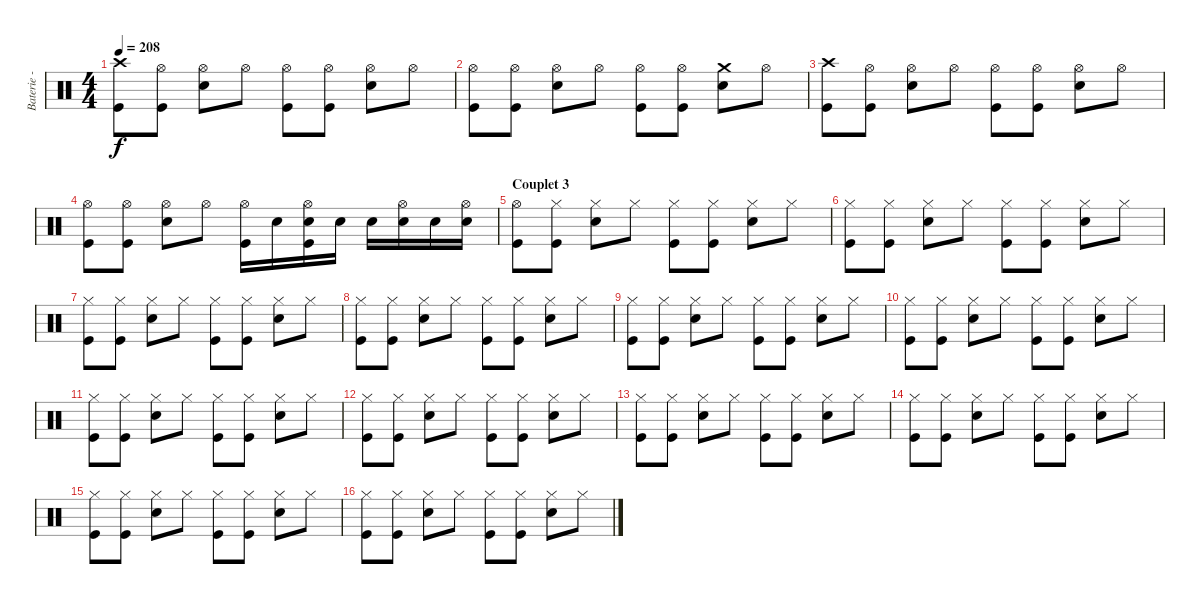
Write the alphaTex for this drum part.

\track ("Baterie - Guillaume" "Baterie - ") {instrument percussion}
\staff {score}
\articulation defaults
\ts (4 4)
\tempo 208
\clef neutral
\ks c
("Crash high (hit)" "Kick (hit)").8{dy f} ("Hi-Hat (open)" "Kick (hit)").8 ("Hi-Hat (open)" "Electric Snare (hit)").8 "Hi-Hat (open)".8 ("Hi-Hat (open)" "Kick (hit)").8 ("Hi-Hat (open)" "Kick (hit)").8 ("Hi-Hat (open)" "Electric Snare (hit)").8 "Hi-Hat (open)".8 |
("Hi-Hat (open)" "Kick (hit)").8 ("Hi-Hat (open)" "Kick (hit)").8 ("Hi-Hat (open)" "Electric Snare (hit)").8 "Hi-Hat (open)".8 ("Hi-Hat (open)" "Kick (hit)").8 ("Hi-Hat (open)" "Kick (hit)").8 ("Crash medium (hit)" "Electric Snare (hit)").8 "Hi-Hat (open)".8 |
("Crash high (hit)" "Kick (hit)").8 ("Hi-Hat (open)" "Kick (hit)").8 ("Hi-Hat (open)" "Electric Snare (hit)").8 "Hi-Hat (open)".8 ("Hi-Hat (open)" "Kick (hit)").8 ("Hi-Hat (open)" "Kick (hit)").8 ("Hi-Hat (open)" "Electric Snare (hit)").8 "Hi-Hat (open)".8 |
("Hi-Hat (open)" "Kick (hit)").8 ("Hi-Hat (open)" "Kick (hit)").8 ("Hi-Hat (open)" "Electric Snare (hit)").8 "Hi-Hat (open)".8 ("Hi-Hat (open)" "Kick (hit)").16 "Electric Snare (hit)".16 ("Hi-Hat (open)" "Electric Snare (hit)" "Kick (hit)").16 "Electric Snare (hit)".16 "Electric Snare (hit)".16 ("Hi-Hat (open)" "Electric Snare (hit)").16 "Electric Snare (hit)".16 ("Hi-Hat (open)" "Electric Snare (hit)").16 |
\section ("" "Couplet 3")
("Hi-Hat (open)" "Kick (hit)").8 ("Hi-Hat (closed)" "Kick (hit)").8 ("Hi-Hat (closed)" "Electric Snare (hit)").8 "Hi-Hat (closed)".8 ("Hi-Hat (closed)" "Kick (hit)").8 ("Hi-Hat (closed)" "Kick (hit)").8 ("Hi-Hat (closed)" "Electric Snare (hit)").8 "Hi-Hat (closed)".8 |
("Hi-Hat (closed)" "Kick (hit)").8 ("Hi-Hat (closed)" "Kick (hit)").8 ("Hi-Hat (closed)" "Electric Snare (hit)").8 "Hi-Hat (closed)".8 ("Hi-Hat (closed)" "Kick (hit)").8 ("Hi-Hat (closed)" "Kick (hit)").8 ("Hi-Hat (closed)" "Electric Snare (hit)").8 "Hi-Hat (closed)".8 |
("Hi-Hat (closed)" "Kick (hit)").8 ("Hi-Hat (closed)" "Kick (hit)").8 ("Hi-Hat (closed)" "Electric Snare (hit)").8 "Hi-Hat (closed)".8 ("Hi-Hat (closed)" "Kick (hit)").8 ("Hi-Hat (closed)" "Kick (hit)").8 ("Hi-Hat (closed)" "Electric Snare (hit)").8 "Hi-Hat (closed)".8 |
("Hi-Hat (closed)" "Kick (hit)").8 ("Hi-Hat (closed)" "Kick (hit)").8 ("Hi-Hat (closed)" "Electric Snare (hit)").8 "Hi-Hat (closed)".8 ("Hi-Hat (closed)" "Kick (hit)").8 ("Hi-Hat (closed)" "Kick (hit)").8 ("Hi-Hat (closed)" "Electric Snare (hit)").8 "Hi-Hat (closed)".8 |
("Hi-Hat (closed)" "Kick (hit)").8 ("Hi-Hat (closed)" "Kick (hit)").8 ("Hi-Hat (closed)" "Electric Snare (hit)").8 "Hi-Hat (closed)".8 ("Hi-Hat (closed)" "Kick (hit)").8 ("Hi-Hat (closed)" "Kick (hit)").8 ("Hi-Hat (closed)" "Electric Snare (hit)").8 "Hi-Hat (closed)".8 |
("Hi-Hat (closed)" "Kick (hit)").8 ("Hi-Hat (closed)" "Kick (hit)").8 ("Hi-Hat (closed)" "Electric Snare (hit)").8 "Hi-Hat (closed)".8 ("Hi-Hat (closed)" "Kick (hit)").8 ("Hi-Hat (closed)" "Kick (hit)").8 ("Hi-Hat (closed)" "Electric Snare (hit)").8 "Hi-Hat (closed)".8 |
("Hi-Hat (closed)" "Kick (hit)").8 ("Hi-Hat (closed)" "Kick (hit)").8 ("Hi-Hat (closed)" "Electric Snare (hit)").8 "Hi-Hat (closed)".8 ("Hi-Hat (closed)" "Kick (hit)").8 ("Hi-Hat (closed)" "Kick (hit)").8 ("Hi-Hat (closed)" "Electric Snare (hit)").8 "Hi-Hat (closed)".8 |
("Hi-Hat (closed)" "Kick (hit)").8 ("Hi-Hat (closed)" "Kick (hit)").8 ("Hi-Hat (closed)" "Electric Snare (hit)").8 "Hi-Hat (closed)".8 ("Hi-Hat (closed)" "Kick (hit)").8 ("Hi-Hat (closed)" "Kick (hit)").8 ("Hi-Hat (closed)" "Electric Snare (hit)").8 "Hi-Hat (closed)".8 |
("Hi-Hat (closed)" "Kick (hit)").8 ("Hi-Hat (closed)" "Kick (hit)").8 ("Hi-Hat (closed)" "Electric Snare (hit)").8 "Hi-Hat (closed)".8 ("Hi-Hat (closed)" "Kick (hit)").8 ("Hi-Hat (closed)" "Kick (hit)").8 ("Hi-Hat (closed)" "Electric Snare (hit)").8 "Hi-Hat (closed)".8 |
("Hi-Hat (closed)" "Kick (hit)").8 ("Hi-Hat (closed)" "Kick (hit)").8 ("Hi-Hat (closed)" "Electric Snare (hit)").8 "Hi-Hat (closed)".8 ("Hi-Hat (closed)" "Kick (hit)").8 ("Hi-Hat (closed)" "Kick (hit)").8 ("Hi-Hat (closed)" "Electric Snare (hit)").8 "Hi-Hat (closed)".8 |
("Hi-Hat (closed)" "Kick (hit)").8 ("Hi-Hat (closed)" "Kick (hit)").8 ("Hi-Hat (closed)" "Electric Snare (hit)").8 "Hi-Hat (closed)".8 ("Hi-Hat (closed)" "Kick (hit)").8 ("Hi-Hat (closed)" "Kick (hit)").8 ("Hi-Hat (closed)" "Electric Snare (hit)").8 "Hi-Hat (closed)".8 |
("Hi-Hat (closed)" "Kick (hit)").8 ("Hi-Hat (closed)" "Kick (hit)").8 ("Hi-Hat (closed)" "Electric Snare (hit)").8 "Hi-Hat (closed)".8 ("Hi-Hat (closed)" "Kick (hit)").8 ("Hi-Hat (closed)" "Kick (hit)").8 ("Hi-Hat (closed)" "Electric Snare (hit)").8 "Hi-Hat (closed)".8
